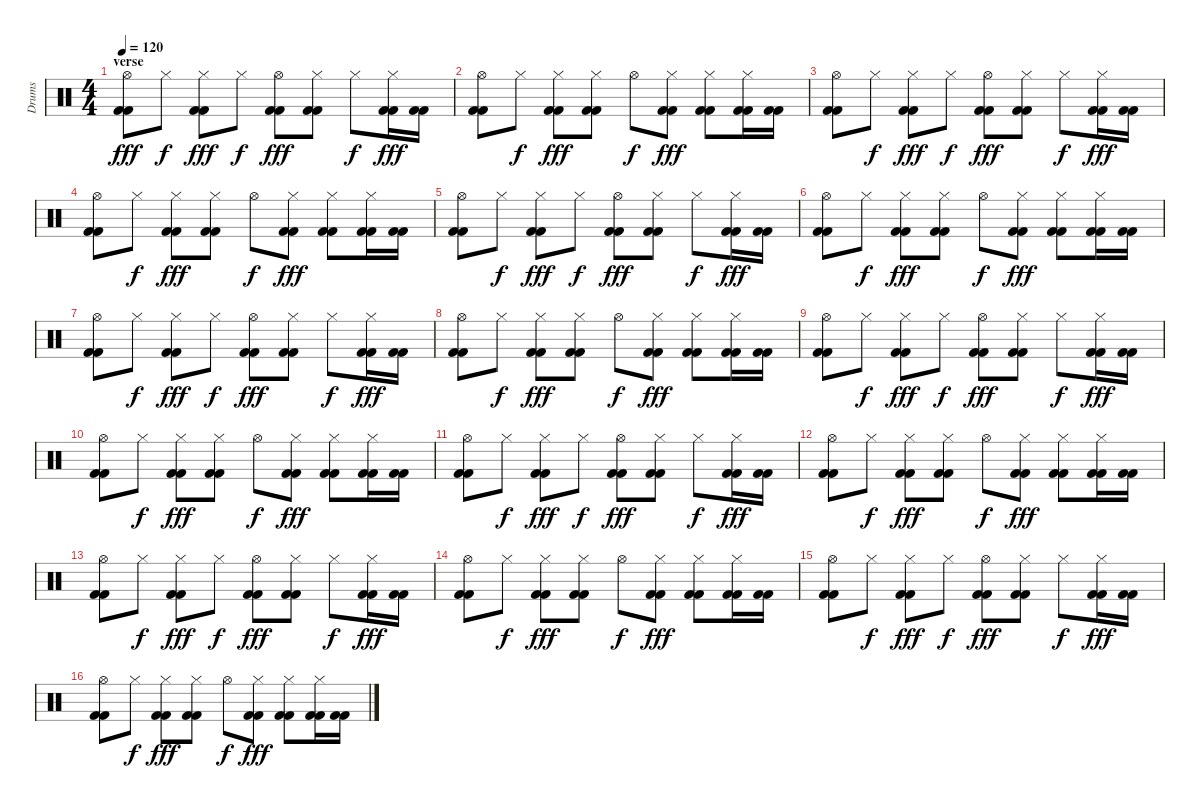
\track ("Drums" "Drums") {instrument percussion}
\staff {score}
\articulation defaults
\ts (4 4)
\section ("" "verse")
\tempo 120
\clef neutral
\ks c
("Hi-Hat (open)" "Kick (hit) 2" "Kick (hit) 2").8{dy fff} "Hi-Hat (closed)".8{dy f} ("Hi-Hat (closed)" "Kick (hit) 2" "Kick (hit) 2").8{dy fff} "Hi-Hat (closed)".8{dy f} ("Hi-Hat (open)" "Kick (hit) 2" "Kick (hit) 2").8{dy fff} ("Hi-Hat (closed)" "Kick (hit) 2" "Kick (hit) 2").8 "Hi-Hat (closed)".8{dy f} ("Hi-Hat (closed)" "Kick (hit) 2" "Kick (hit) 2").16{dy fff} ("Kick (hit) 2" "Kick (hit) 2").16 |
("Hi-Hat (open)" "Kick (hit) 2" "Kick (hit) 2").8 "Hi-Hat (closed)".8{dy f} ("Hi-Hat (closed)" "Kick (hit) 2" "Kick (hit) 2").8{dy fff} ("Hi-Hat (closed)" "Kick (hit) 2" "Kick (hit) 2").8 "Hi-Hat (open)".8{dy f} ("Hi-Hat (closed)" "Kick (hit) 2" "Kick (hit) 2").8{dy fff} ("Hi-Hat (closed)" "Kick (hit) 2" "Kick (hit) 2").8 ("Hi-Hat (closed)" "Kick (hit) 2" "Kick (hit) 2").16 ("Kick (hit) 2" "Kick (hit) 2").16 |
("Hi-Hat (open)" "Kick (hit) 2" "Kick (hit) 2").8 "Hi-Hat (closed)".8{dy f} ("Hi-Hat (closed)" "Kick (hit) 2" "Kick (hit) 2").8{dy fff} "Hi-Hat (closed)".8{dy f} ("Hi-Hat (open)" "Kick (hit) 2" "Kick (hit) 2").8{dy fff} ("Hi-Hat (closed)" "Kick (hit) 2" "Kick (hit) 2").8 "Hi-Hat (closed)".8{dy f} ("Hi-Hat (closed)" "Kick (hit) 2" "Kick (hit) 2").16{dy fff} ("Kick (hit) 2" "Kick (hit) 2").16 |
("Hi-Hat (open)" "Kick (hit) 2" "Kick (hit) 2").8 "Hi-Hat (closed)".8{dy f} ("Hi-Hat (closed)" "Kick (hit) 2" "Kick (hit) 2").8{dy fff} ("Hi-Hat (closed)" "Kick (hit) 2" "Kick (hit) 2").8 "Hi-Hat (open)".8{dy f} ("Hi-Hat (closed)" "Kick (hit) 2" "Kick (hit) 2").8{dy fff} ("Hi-Hat (closed)" "Kick (hit) 2" "Kick (hit) 2").8 ("Hi-Hat (closed)" "Kick (hit) 2" "Kick (hit) 2").16 ("Kick (hit) 2" "Kick (hit) 2").16 |
("Hi-Hat (open)" "Kick (hit) 2" "Kick (hit) 2").8 "Hi-Hat (closed)".8{dy f} ("Hi-Hat (closed)" "Kick (hit) 2" "Kick (hit) 2").8{dy fff} "Hi-Hat (closed)".8{dy f} ("Hi-Hat (open)" "Kick (hit) 2" "Kick (hit) 2").8{dy fff} ("Hi-Hat (closed)" "Kick (hit) 2" "Kick (hit) 2").8 "Hi-Hat (closed)".8{dy f} ("Hi-Hat (closed)" "Kick (hit) 2" "Kick (hit) 2").16{dy fff} ("Kick (hit) 2" "Kick (hit) 2").16 |
("Hi-Hat (open)" "Kick (hit) 2" "Kick (hit) 2").8 "Hi-Hat (closed)".8{dy f} ("Hi-Hat (closed)" "Kick (hit) 2" "Kick (hit) 2").8{dy fff} ("Hi-Hat (closed)" "Kick (hit) 2" "Kick (hit) 2").8 "Hi-Hat (open)".8{dy f} ("Hi-Hat (closed)" "Kick (hit) 2" "Kick (hit) 2").8{dy fff} ("Hi-Hat (closed)" "Kick (hit) 2" "Kick (hit) 2").8 ("Hi-Hat (closed)" "Kick (hit) 2" "Kick (hit) 2").16 ("Kick (hit) 2" "Kick (hit) 2").16 |
("Hi-Hat (open)" "Kick (hit) 2" "Kick (hit) 2").8 "Hi-Hat (closed)".8{dy f} ("Hi-Hat (closed)" "Kick (hit) 2" "Kick (hit) 2").8{dy fff} "Hi-Hat (closed)".8{dy f} ("Hi-Hat (open)" "Kick (hit) 2" "Kick (hit) 2").8{dy fff} ("Hi-Hat (closed)" "Kick (hit) 2" "Kick (hit) 2").8 "Hi-Hat (closed)".8{dy f} ("Hi-Hat (closed)" "Kick (hit) 2" "Kick (hit) 2").16{dy fff} ("Kick (hit) 2" "Kick (hit) 2").16 |
("Hi-Hat (open)" "Kick (hit) 2" "Kick (hit) 2").8 "Hi-Hat (closed)".8{dy f} ("Hi-Hat (closed)" "Kick (hit) 2" "Kick (hit) 2").8{dy fff} ("Hi-Hat (closed)" "Kick (hit) 2" "Kick (hit) 2").8 "Hi-Hat (open)".8{dy f} ("Hi-Hat (closed)" "Kick (hit) 2" "Kick (hit) 2").8{dy fff} ("Hi-Hat (closed)" "Kick (hit) 2" "Kick (hit) 2").8 ("Hi-Hat (closed)" "Kick (hit) 2" "Kick (hit) 2").16 ("Kick (hit) 2" "Kick (hit) 2").16 |
("Hi-Hat (open)" "Kick (hit) 2" "Kick (hit) 2").8 "Hi-Hat (closed)".8{dy f} ("Hi-Hat (closed)" "Kick (hit) 2" "Kick (hit) 2").8{dy fff} "Hi-Hat (closed)".8{dy f} ("Hi-Hat (open)" "Kick (hit) 2" "Kick (hit) 2").8{dy fff} ("Hi-Hat (closed)" "Kick (hit) 2" "Kick (hit) 2").8 "Hi-Hat (closed)".8{dy f} ("Hi-Hat (closed)" "Kick (hit) 2" "Kick (hit) 2").16{dy fff} ("Kick (hit) 2" "Kick (hit) 2").16 |
("Hi-Hat (open)" "Kick (hit) 2" "Kick (hit) 2").8 "Hi-Hat (closed)".8{dy f} ("Hi-Hat (closed)" "Kick (hit) 2" "Kick (hit) 2").8{dy fff} ("Hi-Hat (closed)" "Kick (hit) 2" "Kick (hit) 2").8 "Hi-Hat (open)".8{dy f} ("Hi-Hat (closed)" "Kick (hit) 2" "Kick (hit) 2").8{dy fff} ("Hi-Hat (closed)" "Kick (hit) 2" "Kick (hit) 2").8 ("Hi-Hat (closed)" "Kick (hit) 2" "Kick (hit) 2").16 ("Kick (hit) 2" "Kick (hit) 2").16 |
("Hi-Hat (open)" "Kick (hit) 2" "Kick (hit) 2").8 "Hi-Hat (closed)".8{dy f} ("Hi-Hat (closed)" "Kick (hit) 2" "Kick (hit) 2").8{dy fff} "Hi-Hat (closed)".8{dy f} ("Hi-Hat (open)" "Kick (hit) 2" "Kick (hit) 2").8{dy fff} ("Hi-Hat (closed)" "Kick (hit) 2" "Kick (hit) 2").8 "Hi-Hat (closed)".8{dy f} ("Hi-Hat (closed)" "Kick (hit) 2" "Kick (hit) 2").16{dy fff} ("Kick (hit) 2" "Kick (hit) 2").16 |
("Hi-Hat (open)" "Kick (hit) 2" "Kick (hit) 2").8 "Hi-Hat (closed)".8{dy f} ("Hi-Hat (closed)" "Kick (hit) 2" "Kick (hit) 2").8{dy fff} ("Hi-Hat (closed)" "Kick (hit) 2" "Kick (hit) 2").8 "Hi-Hat (open)".8{dy f} ("Hi-Hat (closed)" "Kick (hit) 2" "Kick (hit) 2").8{dy fff} ("Hi-Hat (closed)" "Kick (hit) 2" "Kick (hit) 2").8 ("Hi-Hat (closed)" "Kick (hit) 2" "Kick (hit) 2").16 ("Kick (hit) 2" "Kick (hit) 2").16 |
("Hi-Hat (open)" "Kick (hit) 2" "Kick (hit) 2").8 "Hi-Hat (closed)".8{dy f} ("Hi-Hat (closed)" "Kick (hit) 2" "Kick (hit) 2").8{dy fff} "Hi-Hat (closed)".8{dy f} ("Hi-Hat (open)" "Kick (hit) 2" "Kick (hit) 2").8{dy fff} ("Hi-Hat (closed)" "Kick (hit) 2" "Kick (hit) 2").8 "Hi-Hat (closed)".8{dy f} ("Hi-Hat (closed)" "Kick (hit) 2" "Kick (hit) 2").16{dy fff} ("Kick (hit) 2" "Kick (hit) 2").16 |
("Hi-Hat (open)" "Kick (hit) 2" "Kick (hit) 2").8 "Hi-Hat (closed)".8{dy f} ("Hi-Hat (closed)" "Kick (hit) 2" "Kick (hit) 2").8{dy fff} ("Hi-Hat (closed)" "Kick (hit) 2" "Kick (hit) 2").8 "Hi-Hat (open)".8{dy f} ("Hi-Hat (closed)" "Kick (hit) 2" "Kick (hit) 2").8{dy fff} ("Hi-Hat (closed)" "Kick (hit) 2" "Kick (hit) 2").8 ("Hi-Hat (closed)" "Kick (hit) 2" "Kick (hit) 2").16 ("Kick (hit) 2" "Kick (hit) 2").16 |
("Hi-Hat (open)" "Kick (hit) 2" "Kick (hit) 2").8 "Hi-Hat (closed)".8{dy f} ("Hi-Hat (closed)" "Kick (hit) 2" "Kick (hit) 2").8{dy fff} "Hi-Hat (closed)".8{dy f} ("Hi-Hat (open)" "Kick (hit) 2" "Kick (hit) 2").8{dy fff} ("Hi-Hat (closed)" "Kick (hit) 2" "Kick (hit) 2").8 "Hi-Hat (closed)".8{dy f} ("Hi-Hat (closed)" "Kick (hit) 2" "Kick (hit) 2").16{dy fff} ("Kick (hit) 2" "Kick (hit) 2").16 |
("Hi-Hat (open)" "Kick (hit) 2" "Kick (hit) 2").8 "Hi-Hat (closed)".8{dy f} ("Hi-Hat (closed)" "Kick (hit) 2" "Kick (hit) 2").8{dy fff} ("Hi-Hat (closed)" "Kick (hit) 2" "Kick (hit) 2").8 "Hi-Hat (open)".8{dy f} ("Hi-Hat (closed)" "Kick (hit) 2" "Kick (hit) 2").8{dy fff} ("Hi-Hat (closed)" "Kick (hit) 2" "Kick (hit) 2").8 ("Hi-Hat (closed)" "Kick (hit) 2" "Kick (hit) 2").16 ("Kick (hit) 2" "Kick (hit) 2").16
